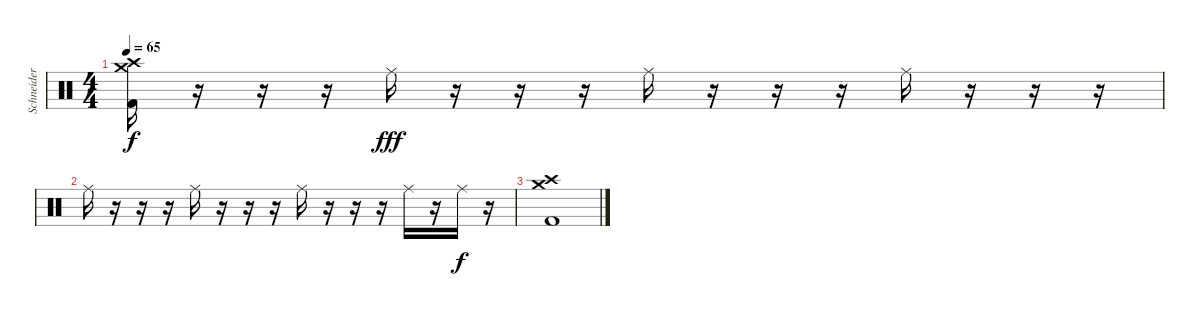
\track ("Schneider" "Schneider") {instrument percussion}
\staff {score}
\articulation defaults
\ts (4 4)
\tempo 65
\clef neutral
\ks c
("Crash high (hit)" "Crash medium (hit)" "Kick (hit) 2").16{dy f} r.16 r.16 r.16 "Ride (middle)".16{dy fff} r.16 r.16 r.16 "Ride (middle)".16 r.16 r.16 r.16 "Ride (middle)".16 r.16 r.16 r.16 |
"Ride (middle)".16 r.16 r.16 r.16 "Ride (middle)".16 r.16 r.16 r.16 "Ride (middle)".16 r.16 r.16 r.16 "Ride (middle)".16 r.16 "Ride (middle)".16{dy f} r.16 |
("Crash high (hit)" "Crash medium (hit)" "Kick (hit) 2").1
